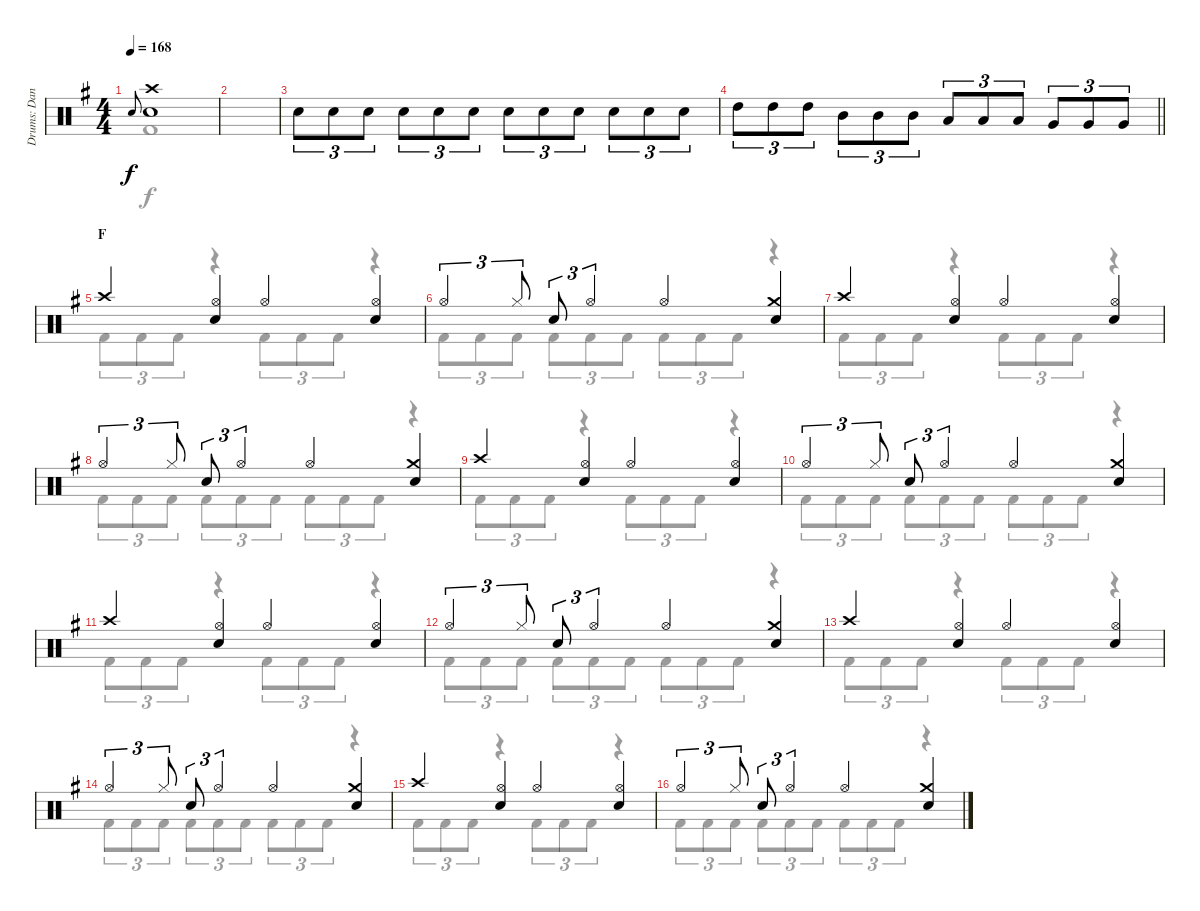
\track ("Drums: Dana" "Drums: Dan") {instrument percussion}
\staff {score}
\articulation defaults
\voice
\ts (4 4)
\tempo 168
\clef neutral
\ks g "Electric Snare (hit)".8{gr onbeat dy f}
("Crash high (hit)" "Snare (hit) 2").1 |
|
"Snare (hit) 2".8{tu (3 2)} "Snare (hit) 2".8{tu (3 2)} "Snare (hit) 2".8{tu (3 2)} "Snare (hit) 2".8{tu (3 2)} "Snare (hit) 2".8{tu (3 2)} "Snare (hit) 2".8{tu (3 2)} "Snare (hit) 2".8{tu (3 2)} "Snare (hit) 2".8{tu (3 2)} "Snare (hit) 2".8{tu (3 2)} "Snare (hit) 2".8{tu (3 2)} "Snare (hit) 2".8{tu (3 2)} "Snare (hit) 2".8{tu (3 2)} |
\barLineRight lightlight "High Tom (hit)".8{tu (3 2)} "High Tom (hit)".8{tu (3 2)} "High Tom (hit)".8{tu (3 2)} "Mid Tom (hit)".8{tu (3 2)} "Mid Tom (hit)".8{tu (3 2)} "Mid Tom (hit)".8{tu (3 2)} "Low Tom (hit)".8{tu (3 2)} "Low Tom (hit)".8{tu (3 2)} "Low Tom (hit)".8{tu (3 2)} "Very Low Tom (hit)".8{tu (3 2)} "Very Low Tom (hit)".8{tu (3 2)} "Very Low Tom (hit)".8{tu (3 2)}
|
\section ("" "F")
"Crash high (hit)".4 ("Hi-Hat (open)" "Snare (hit) 2").4 "Hi-Hat (open)".4 ("Hi-Hat (open)" "Snare (hit) 2").4 |
"Hi-Hat (open)".4{tu (3 2)} "Hi-Hat (closed)".8{tu (3 2)} "Snare (hit) 2".8{tu (3 2)} "Hi-Hat (open)".4{tu (3 2)} "Hi-Hat (open)".4 ("Crash medium (hit)" "Snare (hit) 2").4 |
"Crash high (hit)".4 ("Hi-Hat (open)" "Snare (hit) 2").4 "Hi-Hat (open)".4 ("Hi-Hat (open)" "Snare (hit) 2").4 |
"Hi-Hat (open)".4{tu (3 2)} "Hi-Hat (closed)".8{tu (3 2)} "Snare (hit) 2".8{tu (3 2)} "Hi-Hat (open)".4{tu (3 2)} "Hi-Hat (open)".4 ("Crash medium (hit)" "Snare (hit) 2").4 |
"Crash high (hit)".4 ("Hi-Hat (open)" "Snare (hit) 2").4 "Hi-Hat (open)".4 ("Hi-Hat (open)" "Snare (hit) 2").4 |
"Hi-Hat (open)".4{tu (3 2)} "Hi-Hat (closed)".8{tu (3 2)} "Snare (hit) 2".8{tu (3 2)} "Hi-Hat (open)".4{tu (3 2)} "Hi-Hat (open)".4 ("Crash medium (hit)" "Snare (hit) 2").4 |
"Crash high (hit)".4 ("Hi-Hat (open)" "Snare (hit) 2").4 "Hi-Hat (open)".4 ("Hi-Hat (open)" "Snare (hit) 2").4 |
"Hi-Hat (open)".4{tu (3 2)} "Hi-Hat (closed)".8{tu (3 2)} "Snare (hit) 2".8{tu (3 2)} "Hi-Hat (open)".4{tu (3 2)} "Hi-Hat (open)".4 ("Crash medium (hit)" "Snare (hit) 2").4 |
"Crash high (hit)".4 ("Hi-Hat (open)" "Snare (hit) 2").4 "Hi-Hat (open)".4 ("Hi-Hat (open)" "Snare (hit) 2").4 |
"Hi-Hat (open)".4{tu (3 2)} "Hi-Hat (closed)".8{tu (3 2)} "Snare (hit) 2".8{tu (3 2)} "Hi-Hat (open)".4{tu (3 2)} "Hi-Hat (open)".4 ("Crash medium (hit)" "Snare (hit) 2").4 |
"Crash high (hit)".4 ("Hi-Hat (open)" "Snare (hit) 2").4 "Hi-Hat (open)".4 ("Hi-Hat (open)" "Snare (hit) 2").4 |
"Hi-Hat (open)".4{tu (3 2)} "Hi-Hat (closed)".8{tu (3 2)} "Snare (hit) 2".8{tu (3 2)} "Hi-Hat (open)".4{tu (3 2)} "Hi-Hat (open)".4 ("Crash medium (hit)" "Snare (hit) 2").4
\voice
\clef neutral
\ottava regular
\simile none
\ks g "Kick (hit) 2".1{dy f}
|
|
|
\barLineRight lightlight
|
"Kick (hit) 2".8{tu (3 2)} "Kick (hit) 2".8{tu (3 2)} "Kick (hit) 2".8{tu (3 2)} r.4 "Kick (hit) 2".8{tu (3 2)} "Kick (hit) 2".8{tu (3 2)} "Kick (hit) 2".8{tu (3 2)} r.4 |
"Kick (hit) 2".8{tu (3 2)} "Kick (hit) 2".8{tu (3 2)} "Kick (hit) 2".8{tu (3 2)} "Kick (hit) 2".8{tu (3 2)} "Kick (hit) 2".8{tu (3 2)} "Kick (hit) 2".8{tu (3 2)} "Kick (hit) 2".8{tu (3 2)} "Kick (hit) 2".8{tu (3 2)} "Kick (hit) 2".8{tu (3 2)} r.4 |
"Kick (hit) 2".8{tu (3 2)} "Kick (hit) 2".8{tu (3 2)} "Kick (hit) 2".8{tu (3 2)} r.4 "Kick (hit) 2".8{tu (3 2)} "Kick (hit) 2".8{tu (3 2)} "Kick (hit) 2".8{tu (3 2)} r.4 |
"Kick (hit) 2".8{tu (3 2)} "Kick (hit) 2".8{tu (3 2)} "Kick (hit) 2".8{tu (3 2)} "Kick (hit) 2".8{tu (3 2)} "Kick (hit) 2".8{tu (3 2)} "Kick (hit) 2".8{tu (3 2)} "Kick (hit) 2".8{tu (3 2)} "Kick (hit) 2".8{tu (3 2)} "Kick (hit) 2".8{tu (3 2)} r.4 |
"Kick (hit) 2".8{tu (3 2)} "Kick (hit) 2".8{tu (3 2)} "Kick (hit) 2".8{tu (3 2)} r.4 "Kick (hit) 2".8{tu (3 2)} "Kick (hit) 2".8{tu (3 2)} "Kick (hit) 2".8{tu (3 2)} r.4 |
"Kick (hit) 2".8{tu (3 2)} "Kick (hit) 2".8{tu (3 2)} "Kick (hit) 2".8{tu (3 2)} "Kick (hit) 2".8{tu (3 2)} "Kick (hit) 2".8{tu (3 2)} "Kick (hit) 2".8{tu (3 2)} "Kick (hit) 2".8{tu (3 2)} "Kick (hit) 2".8{tu (3 2)} "Kick (hit) 2".8{tu (3 2)} r.4 |
"Kick (hit) 2".8{tu (3 2)} "Kick (hit) 2".8{tu (3 2)} "Kick (hit) 2".8{tu (3 2)} r.4 "Kick (hit) 2".8{tu (3 2)} "Kick (hit) 2".8{tu (3 2)} "Kick (hit) 2".8{tu (3 2)} r.4 |
"Kick (hit) 2".8{tu (3 2)} "Kick (hit) 2".8{tu (3 2)} "Kick (hit) 2".8{tu (3 2)} "Kick (hit) 2".8{tu (3 2)} "Kick (hit) 2".8{tu (3 2)} "Kick (hit) 2".8{tu (3 2)} "Kick (hit) 2".8{tu (3 2)} "Kick (hit) 2".8{tu (3 2)} "Kick (hit) 2".8{tu (3 2)} r.4 |
"Kick (hit) 2".8{tu (3 2)} "Kick (hit) 2".8{tu (3 2)} "Kick (hit) 2".8{tu (3 2)} r.4 "Kick (hit) 2".8{tu (3 2)} "Kick (hit) 2".8{tu (3 2)} "Kick (hit) 2".8{tu (3 2)} r.4 |
"Kick (hit) 2".8{tu (3 2)} "Kick (hit) 2".8{tu (3 2)} "Kick (hit) 2".8{tu (3 2)} "Kick (hit) 2".8{tu (3 2)} "Kick (hit) 2".8{tu (3 2)} "Kick (hit) 2".8{tu (3 2)} "Kick (hit) 2".8{tu (3 2)} "Kick (hit) 2".8{tu (3 2)} "Kick (hit) 2".8{tu (3 2)} r.4 |
"Kick (hit) 2".8{tu (3 2)} "Kick (hit) 2".8{tu (3 2)} "Kick (hit) 2".8{tu (3 2)} r.4 "Kick (hit) 2".8{tu (3 2)} "Kick (hit) 2".8{tu (3 2)} "Kick (hit) 2".8{tu (3 2)} r.4 |
"Kick (hit) 2".8{tu (3 2)} "Kick (hit) 2".8{tu (3 2)} "Kick (hit) 2".8{tu (3 2)} "Kick (hit) 2".8{tu (3 2)} "Kick (hit) 2".8{tu (3 2)} "Kick (hit) 2".8{tu (3 2)} "Kick (hit) 2".8{tu (3 2)} "Kick (hit) 2".8{tu (3 2)} "Kick (hit) 2".8{tu (3 2)} r.4
